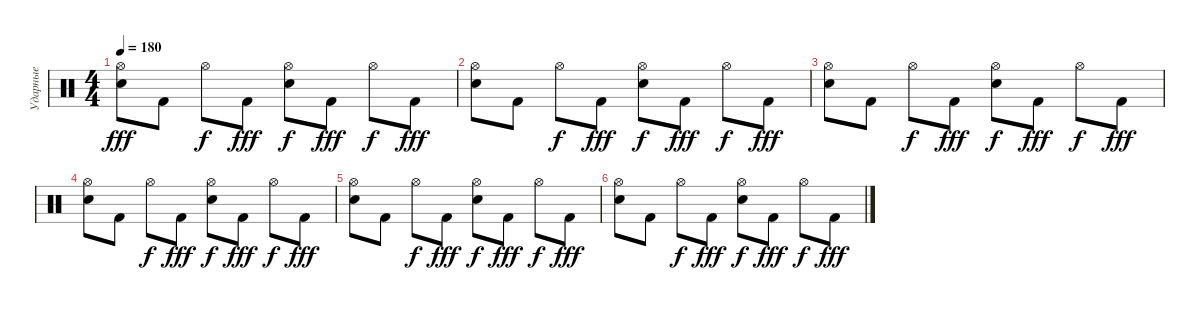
\track ("Ударные" "Ударные") {instrument percussion}
\staff
\articulation defaults
\ts (4 4)
\tempo 180
\clef neutral
\ks c
("Snare (hit) 2" "Hi-Hat (open)").8{dy fff} "Kick (hit) 2".8 "Hi-Hat (open)".8{dy f} "Kick (hit) 2".8{dy fff} ("Snare (hit) 2" "Hi-Hat (open)").8{dy f} "Kick (hit) 2".8{dy fff} "Hi-Hat (open)".8{dy f} "Kick (hit) 2".8{dy fff} |
("Snare (hit) 2" "Hi-Hat (open)").8 "Kick (hit) 2".8 "Hi-Hat (open)".8{dy f} "Kick (hit) 2".8{dy fff} ("Snare (hit) 2" "Hi-Hat (open)").8{dy f} "Kick (hit) 2".8{dy fff} "Hi-Hat (open)".8{dy f} "Kick (hit) 2".8{dy fff} |
("Snare (hit) 2" "Hi-Hat (open)").8 "Kick (hit) 2".8 "Hi-Hat (open)".8{dy f} "Kick (hit) 2".8{dy fff} ("Snare (hit) 2" "Hi-Hat (open)").8{dy f} "Kick (hit) 2".8{dy fff} "Hi-Hat (open)".8{dy f} "Kick (hit) 2".8{dy fff} |
("Snare (hit) 2" "Hi-Hat (open)").8 "Kick (hit) 2".8 "Hi-Hat (open)".8{dy f} "Kick (hit) 2".8{dy fff} ("Snare (hit) 2" "Hi-Hat (open)").8{dy f} "Kick (hit) 2".8{dy fff} "Hi-Hat (open)".8{dy f} "Kick (hit) 2".8{dy fff} |
("Snare (hit) 2" "Hi-Hat (open)").8 "Kick (hit) 2".8 "Hi-Hat (open)".8{dy f} "Kick (hit) 2".8{dy fff} ("Snare (hit) 2" "Hi-Hat (open)").8{dy f} "Kick (hit) 2".8{dy fff} "Hi-Hat (open)".8{dy f} "Kick (hit) 2".8{dy fff} |
("Snare (hit) 2" "Hi-Hat (open)").8 "Kick (hit) 2".8 "Hi-Hat (open)".8{dy f} "Kick (hit) 2".8{dy fff} ("Snare (hit) 2" "Hi-Hat (open)").8{dy f} "Kick (hit) 2".8{dy fff} "Hi-Hat (open)".8{dy f} "Kick (hit) 2".8{dy fff}
